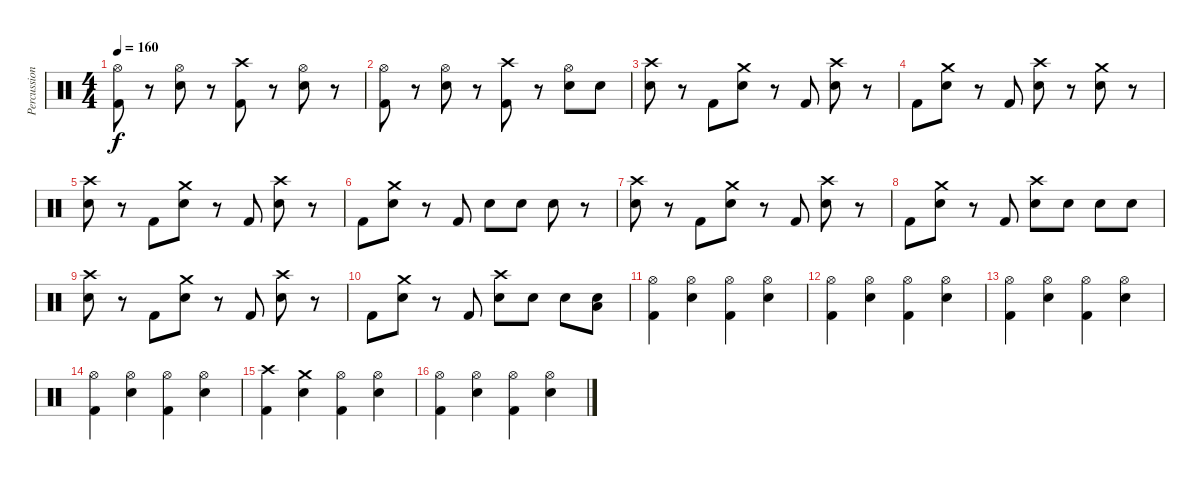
\track ("Percussion" "Percussion") {instrument percussion}
\staff {score}
\articulation defaults
\ts (4 4)
\tempo 160
\clef neutral
\ks c
("Hi-Hat (open)" "Kick (hit) 2").8{dy f} r.8 ("Hi-Hat (open)" "Electric Snare (hit)").8 r.8 ("Crash high (hit)" "Kick (hit) 2").8 r.8 ("Hi-Hat (open)" "Electric Snare (hit)").8 r.8 |
("Hi-Hat (open)" "Kick (hit) 2").8 r.8 ("Hi-Hat (open)" "Electric Snare (hit)").8 r.8 ("Crash high (hit)" "Kick (hit) 2").8 r.8 ("Hi-Hat (open)" "Electric Snare (hit)").8 "Electric Snare (hit)".8 |
("Crash high (hit)" "Electric Snare (hit)").8 r.8 "Kick (hit) 2".8 ("Crash medium (hit)" "Electric Snare (hit)").8 r.8 "Kick (hit) 2".8 ("Crash high (hit)" "Electric Snare (hit)").8 r.8 |
"Kick (hit) 2".8 ("Crash medium (hit)" "Electric Snare (hit)").8 r.8 "Kick (hit) 2".8 ("Crash high (hit)" "Electric Snare (hit)").8 r.8 ("Crash medium (hit)" "Electric Snare (hit)").8 r.8 |
("Crash high (hit)" "Electric Snare (hit)").8 r.8 "Kick (hit) 2".8 ("Crash medium (hit)" "Electric Snare (hit)").8 r.8 "Kick (hit) 2".8 ("Crash high (hit)" "Electric Snare (hit)").8 r.8 |
"Kick (hit) 2".8 ("Crash medium (hit)" "Electric Snare (hit)").8 r.8 "Kick (hit) 2".8 "Electric Snare (hit)".8 "Electric Snare (hit)".8 "Electric Snare (hit)".8 r.8 |
("Crash high (hit)" "Electric Snare (hit)").8 r.8 "Kick (hit) 2".8 ("Crash medium (hit)" "Electric Snare (hit)").8 r.8 "Kick (hit) 2".8 ("Crash high (hit)" "Electric Snare (hit)").8 r.8 |
"Kick (hit) 2".8 ("Crash medium (hit)" "Electric Snare (hit)").8 r.8 "Kick (hit) 2".8 ("Crash high (hit)" "Electric Snare (hit)").8 "Electric Snare (hit)".8 "Electric Snare (hit)".8 "Electric Snare (hit)".8 |
("Crash high (hit)" "Electric Snare (hit)").8 r.8 "Kick (hit) 2".8 ("Crash medium (hit)" "Electric Snare (hit)").8 r.8 "Kick (hit) 2".8 ("Crash high (hit)" "Electric Snare (hit)").8 r.8 |
"Kick (hit) 2".8 ("Crash medium (hit)" "Electric Snare (hit)").8 r.8 "Kick (hit) 2".8 ("Crash high (hit)" "Electric Snare (hit)").8 "Electric Snare (hit)".8 "Electric Snare (hit)".8 ("Low Tom (hit)" "Electric Snare (hit)").8 |
("Hi-Hat (open)" "Kick (hit) 2").4 ("Hi-Hat (open)" "Electric Snare (hit)").4 ("Hi-Hat (open)" "Kick (hit) 2").4 ("Hi-Hat (open)" "Electric Snare (hit)").4 |
("Hi-Hat (open)" "Kick (hit) 2").4 ("Hi-Hat (open)" "Electric Snare (hit)").4 ("Hi-Hat (open)" "Kick (hit) 2").4 ("Hi-Hat (open)" "Electric Snare (hit)").4 |
("Hi-Hat (open)" "Kick (hit) 2").4 ("Hi-Hat (open)" "Electric Snare (hit)").4 ("Hi-Hat (open)" "Kick (hit) 2").4 ("Hi-Hat (open)" "Electric Snare (hit)").4 |
("Hi-Hat (open)" "Kick (hit) 2").4 ("Hi-Hat (open)" "Electric Snare (hit)").4 ("Hi-Hat (open)" "Kick (hit) 2").4 ("Hi-Hat (open)" "Electric Snare (hit)").4 |
("Crash high (hit)" "Kick (hit) 2").4 ("Crash medium (hit)" "Electric Snare (hit)").4 ("Hi-Hat (open)" "Kick (hit) 2").4 ("Hi-Hat (open)" "Electric Snare (hit)").4 |
("Hi-Hat (open)" "Kick (hit) 2").4 ("Hi-Hat (open)" "Electric Snare (hit)").4 ("Hi-Hat (open)" "Kick (hit) 2").4 ("Hi-Hat (open)" "Electric Snare (hit)").4
